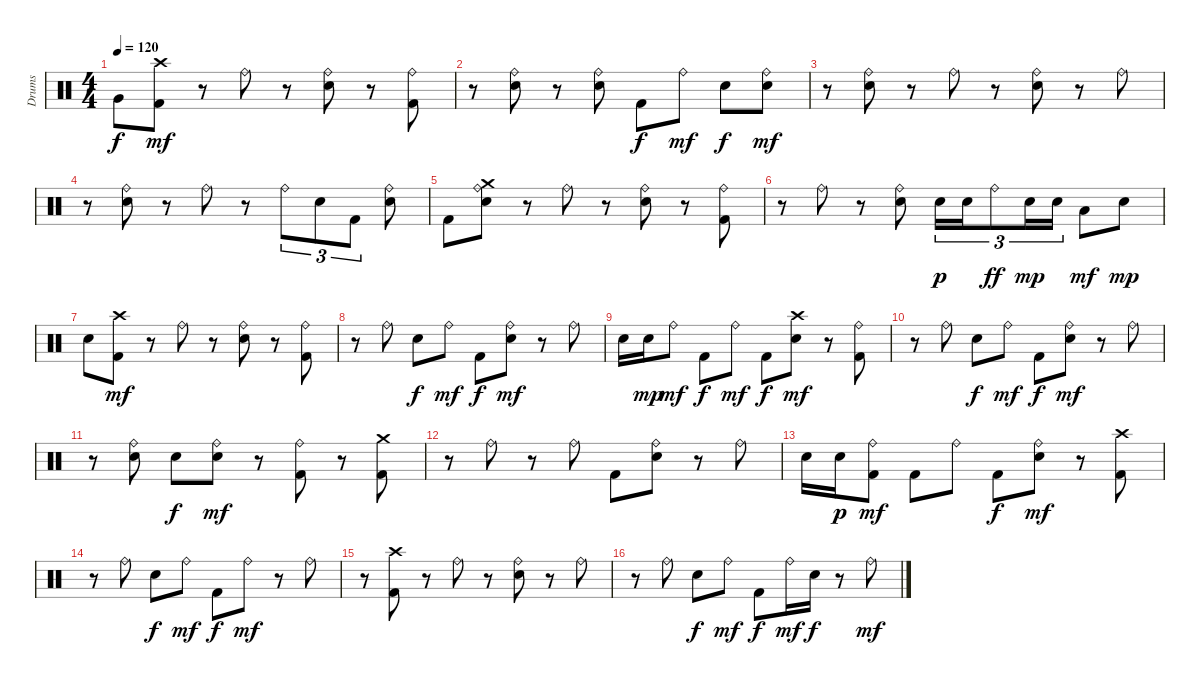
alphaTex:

\track ("Drums" "Drums") {instrument percussion}
\staff {score}
\articulation defaults
\ts (4 4)
\tempo 120
\clef neutral
\ks c "Very Low Tom (hit)".8{dy f}
("Kick (hit) 2" "Crash high (hit)").8{dy mf} r.8 "Ride (bell)".8 r.8 ("Electric Snare (hit)" "Ride (bell)").8 r.8 ("Kick (hit) 2" "Ride (bell)").8 |
r.8 ("Electric Snare (hit)" "Ride (bell)").8 r.8 ("Electric Snare (hit)" "Ride (bell)").8 "Kick (hit) 2".8{dy f} "Ride (bell)".8{dy mf} "Electric Snare (hit)".8{dy f} ("Electric Snare (hit)" "Ride (bell)").8{dy mf} |
r.8 ("Electric Snare (hit)" "Ride (bell)").8 r.8 "Ride (bell)".8 r.8 ("Electric Snare (hit)" "Ride (bell)").8 r.8 "Ride (bell)".8 |
r.8 ("Electric Snare (hit)" "Ride (bell)").8 r.8 "Ride (bell)".8 r.8 "Ride (bell)".8{tu (3 2)} "Electric Snare (hit)".8{tu (3 2)} "Kick (hit) 2".8{tu (3 2)} ("Electric Snare (hit)" "Ride (bell)").8 |
"Kick (hit) 2".8 ("Electric Snare (hit)" "Ride (bell)" "Crash medium (hit)").8 r.8 "Ride (bell)".8 r.8 ("Electric Snare (hit)" "Ride (bell)").8 r.8 ("Kick (hit) 2" "Ride (bell)").8 |
r.8 "Ride (bell)".8 r.8 ("Electric Snare (hit)" "Ride (bell)").8 "Electric Snare (hit)".16{tu (3 2) dy p} "Electric Snare (hit)".16{tu (3 2)} "Ride (bell)".8{tu (3 2) dy ff} "Electric Snare (hit)".16{tu (3 2) dy mp} "Electric Snare (hit)".16{tu (3 2)} "Low Tom (hit)".8{dy mf} "Electric Snare (hit)".8{dy mp} |
"Electric Snare (hit)".8 ("Kick (hit) 2" "Crash high (hit)").8{dy mf} r.8 "Ride (bell)".8 r.8 ("Electric Snare (hit)" "Ride (bell)").8 r.8 ("Kick (hit) 2" "Ride (bell)").8 |
r.8 "Ride (bell)".8 "Electric Snare (hit)".8{dy f} "Ride (bell)".8{dy mf} "Kick (hit) 2".8{dy f} ("Electric Snare (hit)" "Ride (bell)").8{dy mf} r.8 "Ride (bell)".8 |
"Electric Snare (hit)".16 "Electric Snare (hit)".16{dy mp} "Ride (bell)".8{dy mf} "Kick (hit) 2".8{dy f} "Ride (bell)".8{dy mf} "Kick (hit) 2".8{dy f} ("Electric Snare (hit)" "Crash high (hit)").8{dy mf} r.8 ("Kick (hit) 2" "Ride (bell)").8 |
r.8 "Ride (bell)".8 "Electric Snare (hit)".8{dy f} "Ride (bell)".8{dy mf} "Kick (hit) 2".8{dy f} ("Electric Snare (hit)" "Ride (bell)").8{dy mf} r.8 "Ride (bell)".8 |
r.8 ("Electric Snare (hit)" "Ride (bell)").8 "Electric Snare (hit)".8{dy f} ("Electric Snare (hit)" "Ride (bell)").8{dy mf} r.8 ("Kick (hit) 2" "Ride (bell)").8 r.8 ("Kick (hit) 2" "Crash medium (hit)").8 |
r.8 "Ride (bell)".8 r.8 "Ride (bell)".8 "Kick (hit) 2".8 ("Electric Snare (hit)" "Ride (bell)").8 r.8 "Ride (bell)".8 |
"Electric Snare (hit)".16 "Electric Snare (hit)".16{dy p} ("Kick (hit) 2" "Ride (bell)").8{dy mf} "Kick (hit) 2".8 "Ride (bell)".8 "Kick (hit) 2".8{dy f} ("Electric Snare (hit)" "Ride (bell)").8{dy mf} r.8 ("Kick (hit) 2" "Crash high (hit)").8 |
r.8 "Ride (bell)".8 "Electric Snare (hit)".8{dy f} "Ride (bell)".8{dy mf} "Kick (hit) 2".8{dy f} "Ride (bell)".8{dy mf} r.8 "Ride (bell)".8 |
r.8 ("Kick (hit) 2" "Crash high (hit)").8 r.8 "Ride (bell)".8 r.8 ("Electric Snare (hit)" "Ride (bell)").8 r.8 "Ride (bell)".8 |
r.8 "Ride (bell)".8 "Electric Snare (hit)".8{dy f} "Ride (bell)".8{dy mf} "Kick (hit) 2".8{dy f} "Ride (bell)".16{dy mf} "Electric Snare (hit)".16{dy f} r.8 "Ride (bell)".8{dy mf}
